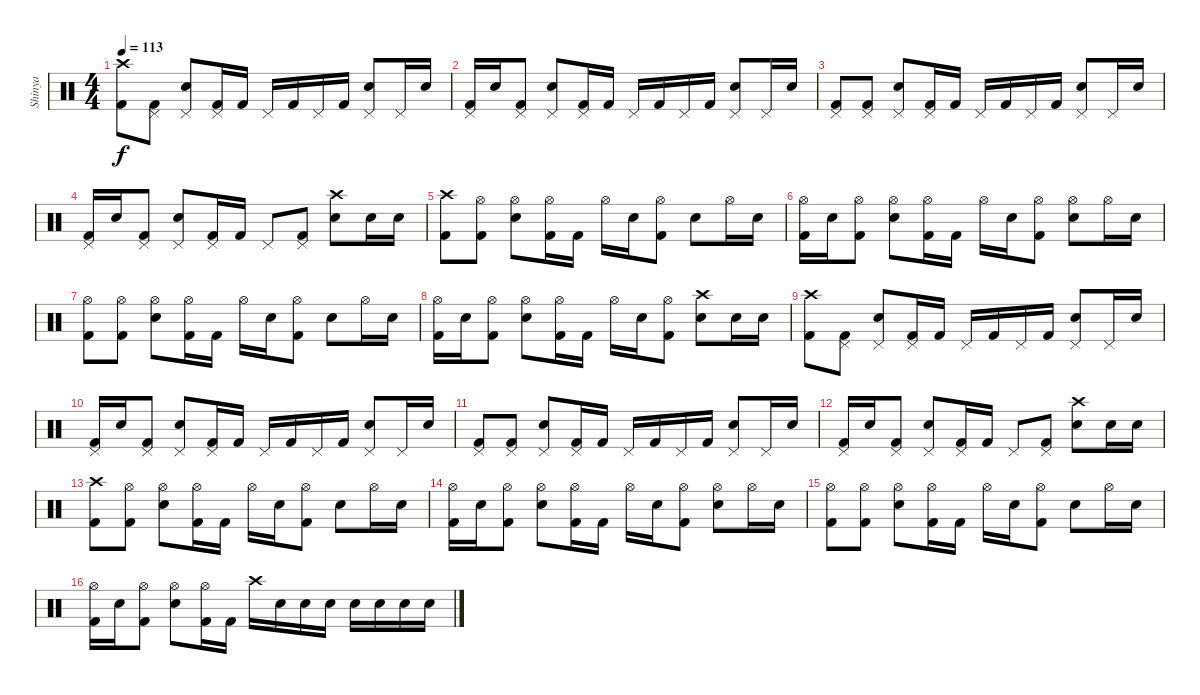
\track ("Shinya" "Shinya") {instrument percussion}
\staff {score}
\articulation defaults
\ts (4 4)
\tempo 113
\clef neutral
\ks c
("Crash high (hit)" "Kick (hit) 2").8{dy f} ("Pedal Hi-Hat (hit)" "Kick (hit) 2").8 ("Pedal Hi-Hat (hit)" "Electric Snare (hit)").8 ("Pedal Hi-Hat (hit)" "Kick (hit) 2").16 "Kick (hit) 2".16 "Pedal Hi-Hat (hit)".16 "Kick (hit) 2".16 "Pedal Hi-Hat (hit)".16 "Kick (hit) 2".16 ("Pedal Hi-Hat (hit)" "Electric Snare (hit)").8 "Pedal Hi-Hat (hit)".16 "Electric Snare (hit)".16 |
("Pedal Hi-Hat (hit)" "Kick (hit) 2").16 "Electric Snare (hit)".16 ("Pedal Hi-Hat (hit)" "Kick (hit) 2").8 ("Pedal Hi-Hat (hit)" "Electric Snare (hit)").8 ("Pedal Hi-Hat (hit)" "Kick (hit) 2").16 "Kick (hit) 2".16 "Pedal Hi-Hat (hit)".16 "Kick (hit) 2".16 "Pedal Hi-Hat (hit)".16 "Kick (hit) 2".16 ("Pedal Hi-Hat (hit)" "Electric Snare (hit)").8 "Pedal Hi-Hat (hit)".16 "Electric Snare (hit)".16 |
("Pedal Hi-Hat (hit)" "Kick (hit) 2").8 ("Pedal Hi-Hat (hit)" "Kick (hit) 2").8 ("Pedal Hi-Hat (hit)" "Electric Snare (hit)").8 ("Pedal Hi-Hat (hit)" "Kick (hit) 2").16 "Kick (hit) 2".16 "Pedal Hi-Hat (hit)".16 "Kick (hit) 2".16 "Pedal Hi-Hat (hit)".16 "Kick (hit) 2".16 ("Pedal Hi-Hat (hit)" "Electric Snare (hit)").8 "Pedal Hi-Hat (hit)".16 "Electric Snare (hit)".16 |
("Pedal Hi-Hat (hit)" "Kick (hit) 2").16 "Electric Snare (hit)".16 ("Pedal Hi-Hat (hit)" "Kick (hit) 2").8 ("Pedal Hi-Hat (hit)" "Electric Snare (hit)").8 ("Pedal Hi-Hat (hit)" "Kick (hit) 2").16 "Kick (hit) 2".16 "Pedal Hi-Hat (hit)".8 ("Pedal Hi-Hat (hit)" "Kick (hit) 2").8 ("Crash high (hit)" "Electric Snare (hit)").8 "Electric Snare (hit)".16 "Electric Snare (hit)".16 |
("Crash high (hit)" "Kick (hit) 2").8 ("Hi-Hat (open)" "Kick (hit) 2").8 ("Hi-Hat (open)" "Electric Snare (hit)").8 ("Hi-Hat (open)" "Kick (hit) 2").16 "Kick (hit) 2".16 "Hi-Hat (open)".16 "Electric Snare (hit)".16 ("Hi-Hat (open)" "Kick (hit) 2").8 "Electric Snare (hit)".8 "Hi-Hat (open)".16 "Electric Snare (hit)".16 |
("Hi-Hat (open)" "Kick (hit) 2").16 "Electric Snare (hit)".16 ("Hi-Hat (open)" "Kick (hit) 2").8 ("Hi-Hat (open)" "Electric Snare (hit)").8 ("Hi-Hat (open)" "Kick (hit) 2").16 "Kick (hit) 2".16 "Hi-Hat (open)".16 "Electric Snare (hit)".16 ("Hi-Hat (open)" "Kick (hit) 2").8 ("Hi-Hat (open)" "Electric Snare (hit)").8 "Hi-Hat (open)".16 "Electric Snare (hit)".16 |
("Hi-Hat (open)" "Kick (hit) 2").8 ("Hi-Hat (open)" "Kick (hit) 2").8 ("Hi-Hat (open)" "Electric Snare (hit)").8 ("Hi-Hat (open)" "Kick (hit) 2").16 "Kick (hit) 2".16 "Hi-Hat (open)".16 "Electric Snare (hit)".16 ("Hi-Hat (open)" "Kick (hit) 2").8 "Electric Snare (hit)".8 "Hi-Hat (open)".16 "Electric Snare (hit)".16 |
("Hi-Hat (open)" "Kick (hit) 2").16 "Electric Snare (hit)".16 ("Hi-Hat (open)" "Kick (hit) 2").8 ("Hi-Hat (open)" "Electric Snare (hit)").8 ("Hi-Hat (open)" "Kick (hit) 2").16 "Kick (hit) 2".16 "Hi-Hat (open)".16 "Electric Snare (hit)".16 ("Hi-Hat (open)" "Kick (hit) 2").8 ("Crash high (hit)" "Electric Snare (hit)").8 "Electric Snare (hit)".16 "Electric Snare (hit)".16 |
("Crash high (hit)" "Kick (hit) 2").8 ("Pedal Hi-Hat (hit)" "Kick (hit) 2").8 ("Pedal Hi-Hat (hit)" "Electric Snare (hit)").8 ("Pedal Hi-Hat (hit)" "Kick (hit) 2").16 "Kick (hit) 2".16 "Pedal Hi-Hat (hit)".16 "Kick (hit) 2".16 "Pedal Hi-Hat (hit)".16 "Kick (hit) 2".16 ("Pedal Hi-Hat (hit)" "Electric Snare (hit)").8 "Pedal Hi-Hat (hit)".16 "Electric Snare (hit)".16 |
("Pedal Hi-Hat (hit)" "Kick (hit) 2").16 "Electric Snare (hit)".16 ("Pedal Hi-Hat (hit)" "Kick (hit) 2").8 ("Pedal Hi-Hat (hit)" "Electric Snare (hit)").8 ("Pedal Hi-Hat (hit)" "Kick (hit) 2").16 "Kick (hit) 2".16 "Pedal Hi-Hat (hit)".16 "Kick (hit) 2".16 "Pedal Hi-Hat (hit)".16 "Kick (hit) 2".16 ("Pedal Hi-Hat (hit)" "Electric Snare (hit)").8 "Pedal Hi-Hat (hit)".16 "Electric Snare (hit)".16 |
("Pedal Hi-Hat (hit)" "Kick (hit) 2").8 ("Pedal Hi-Hat (hit)" "Kick (hit) 2").8 ("Pedal Hi-Hat (hit)" "Electric Snare (hit)").8 ("Pedal Hi-Hat (hit)" "Kick (hit) 2").16 "Kick (hit) 2".16 "Pedal Hi-Hat (hit)".16 "Kick (hit) 2".16 "Pedal Hi-Hat (hit)".16 "Kick (hit) 2".16 ("Pedal Hi-Hat (hit)" "Electric Snare (hit)").8 "Pedal Hi-Hat (hit)".16 "Electric Snare (hit)".16 |
("Pedal Hi-Hat (hit)" "Kick (hit) 2").16 "Electric Snare (hit)".16 ("Pedal Hi-Hat (hit)" "Kick (hit) 2").8 ("Pedal Hi-Hat (hit)" "Electric Snare (hit)").8 ("Pedal Hi-Hat (hit)" "Kick (hit) 2").16 "Kick (hit) 2".16 "Pedal Hi-Hat (hit)".8 ("Pedal Hi-Hat (hit)" "Kick (hit) 2").8 ("Crash high (hit)" "Electric Snare (hit)").8 "Electric Snare (hit)".16 "Electric Snare (hit)".16 |
("Crash high (hit)" "Kick (hit) 2").8 ("Hi-Hat (open)" "Kick (hit) 2").8 ("Hi-Hat (open)" "Electric Snare (hit)").8 ("Hi-Hat (open)" "Kick (hit) 2").16 "Kick (hit) 2".16 "Hi-Hat (open)".16 "Electric Snare (hit)".16 ("Hi-Hat (open)" "Kick (hit) 2").8 "Electric Snare (hit)".8 "Hi-Hat (open)".16 "Electric Snare (hit)".16 |
("Hi-Hat (open)" "Kick (hit) 2").16 "Electric Snare (hit)".16 ("Hi-Hat (open)" "Kick (hit) 2").8 ("Hi-Hat (open)" "Electric Snare (hit)").8 ("Hi-Hat (open)" "Kick (hit) 2").16 "Kick (hit) 2".16 "Hi-Hat (open)".16 "Electric Snare (hit)".16 ("Hi-Hat (open)" "Kick (hit) 2").8 ("Hi-Hat (open)" "Electric Snare (hit)").8 "Hi-Hat (open)".16 "Electric Snare (hit)".16 |
("Hi-Hat (open)" "Kick (hit) 2").8 ("Hi-Hat (open)" "Kick (hit) 2").8 ("Hi-Hat (open)" "Electric Snare (hit)").8 ("Hi-Hat (open)" "Kick (hit) 2").16 "Kick (hit) 2".16 "Hi-Hat (open)".16 "Electric Snare (hit)".16 ("Hi-Hat (open)" "Kick (hit) 2").8 "Electric Snare (hit)".8 "Hi-Hat (open)".16 "Electric Snare (hit)".16 |
("Hi-Hat (open)" "Kick (hit) 2").16 "Electric Snare (hit)".16 ("Hi-Hat (open)" "Kick (hit) 2").8 ("Hi-Hat (open)" "Electric Snare (hit)").8 ("Hi-Hat (open)" "Kick (hit) 2").16 "Kick (hit) 2".16 "Crash high (hit)".16 "Electric Snare (hit)".16 "Electric Snare (hit)".16 "Electric Snare (hit)".16 "Electric Snare (hit)".16 "Electric Snare (hit)".16 "Electric Snare (hit)".16 "Electric Snare (hit)".16
